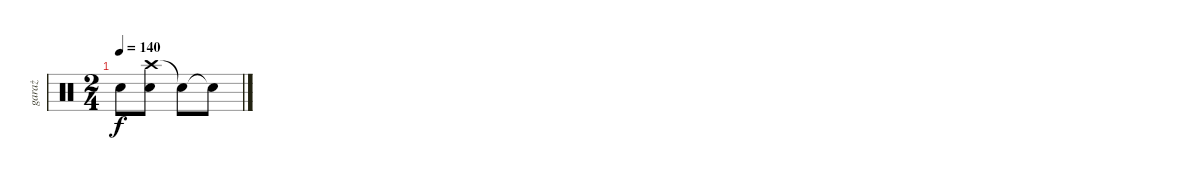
\track ("garaż" "garaż") {instrument percussion}
\staff {score}
\articulation defaults
\ts (2 4)
\tempo 140
\clef neutral
\ks c "Snare (hit) 2".8{dy f}
("Crash high (hit)" "Snare (hit) 2").8 "Snare (hit)"{t}.8 "Snare (hit)"{t}.8
